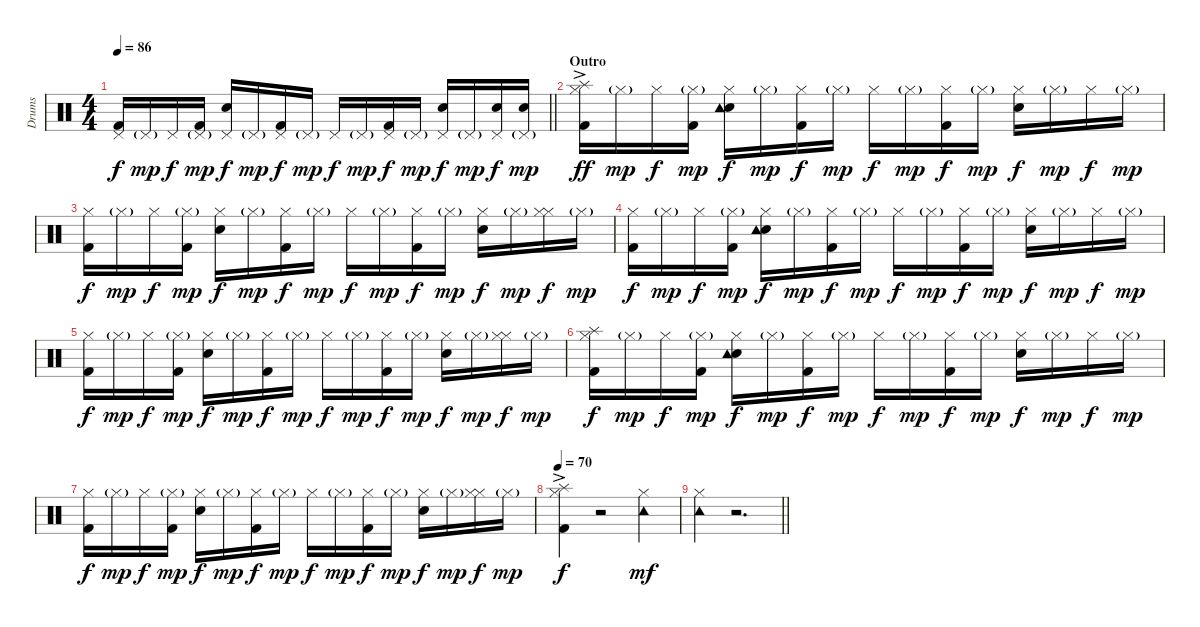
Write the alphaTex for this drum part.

\track ("Drums" "Drums") {instrument percussion}
\staff {score}
\articulation defaults
\ts (4 4)
\tempo 86
\clef neutral
\barLineRight lightlight
\ks c
("Pedal Hi-Hat (hit)" "Kick (hit) 2").16{dy f} "Pedal Hi-Hat (hit)"{g}.16{dy mp} "Pedal Hi-Hat (hit)".16{dy f} ("Pedal Hi-Hat (hit)"{g} "Kick (hit) 2").16{dy mp} ("Pedal Hi-Hat (hit)" "Snare (hit) 2").16{dy f} "Pedal Hi-Hat (hit)"{g}.16{dy mp} ("Pedal Hi-Hat (hit)" "Kick (hit) 2").16{dy f} "Pedal Hi-Hat (hit)"{g}.16{dy mp} "Pedal Hi-Hat (hit)".16{dy f} "Pedal Hi-Hat (hit)"{g}.16{dy mp} ("Pedal Hi-Hat (hit)" "Kick (hit) 2").16{dy f} "Pedal Hi-Hat (hit)"{g}.16{dy mp} ("Pedal Hi-Hat (hit)" "Snare (hit) 2").16{dy f} "Pedal Hi-Hat (hit)"{g}.16{dy mp} ("Pedal Hi-Hat (hit)" "Snare (hit) 2").16{dy f} ("Pedal Hi-Hat (hit)"{g} "Snare (hit) 2").16{dy mp} |
\section ("" "Outro")
("Hi-Hat (closed)" "Kick (hit) 2" "Splash (hit)"{ac}).16{dy ff} "Hi-Hat (closed)"{g}.16{dy mp} "Hi-Hat (closed)".16{dy f} ("Hi-Hat (closed)"{g} "Kick (hit) 2").16{dy mp} ("Hi-Hat (closed)" "Snare (hit) 2" "Tambourine (hit)").16{dy f} "Hi-Hat (closed)"{g}.16{dy mp} ("Hi-Hat (closed)" "Kick (hit) 2").16{dy f} "Hi-Hat (closed)"{g}.16{dy mp} "Hi-Hat (closed)".16{dy f} "Hi-Hat (closed)"{g}.16{dy mp} ("Hi-Hat (closed)" "Kick (hit) 2").16{dy f} "Hi-Hat (closed)"{g}.16{dy mp} ("Hi-Hat (closed)" "Snare (hit) 2").16{dy f} "Hi-Hat (closed)"{g}.16{dy mp} "Hi-Hat (closed)".16{dy f} "Hi-Hat (closed)"{g}.16{dy mp} |
("Hi-Hat (closed)" "Kick (hit) 2").16{dy f} "Hi-Hat (closed)"{g}.16{dy mp} "Hi-Hat (closed)".16{dy f} ("Hi-Hat (closed)"{g} "Kick (hit) 2").16{dy mp} ("Hi-Hat (closed)" "Snare (hit) 2").16{dy f} "Hi-Hat (closed)"{g}.16{dy mp} ("Hi-Hat (closed)" "Kick (hit) 2").16{dy f} "Hi-Hat (closed)"{g}.16{dy mp} "Hi-Hat (closed)".16{dy f} "Hi-Hat (closed)"{g}.16{dy mp} ("Hi-Hat (closed)" "Kick (hit) 2").16{dy f} "Hi-Hat (closed)"{g}.16{dy mp} ("Hi-Hat (closed)" "Snare (hit) 2").16{dy f} "Hi-Hat (closed)"{g}.16{dy mp} ("Hi-Hat (closed)" "Hi-Hat (closed)").16{dy f} "Hi-Hat (closed)"{g}.16{dy mp} |
("Hi-Hat (closed)" "Kick (hit) 2").16{dy f} "Hi-Hat (closed)"{g}.16{dy mp} "Hi-Hat (closed)".16{dy f} ("Hi-Hat (closed)"{g} "Kick (hit) 2").16{dy mp} ("Hi-Hat (closed)" "Snare (hit) 2" "Tambourine (hit)").16{dy f} "Hi-Hat (closed)"{g}.16{dy mp} ("Hi-Hat (closed)" "Kick (hit) 2").16{dy f} "Hi-Hat (closed)"{g}.16{dy mp} "Hi-Hat (closed)".16{dy f} "Hi-Hat (closed)"{g}.16{dy mp} ("Hi-Hat (closed)" "Kick (hit) 2").16{dy f} "Hi-Hat (closed)"{g}.16{dy mp} ("Hi-Hat (closed)" "Snare (hit) 2").16{dy f} "Hi-Hat (closed)"{g}.16{dy mp} "Hi-Hat (closed)".16{dy f} "Hi-Hat (closed)"{g}.16{dy mp} |
("Hi-Hat (closed)" "Kick (hit) 2").16{dy f} "Hi-Hat (closed)"{g}.16{dy mp} "Hi-Hat (closed)".16{dy f} ("Hi-Hat (closed)"{g} "Kick (hit) 2").16{dy mp} ("Hi-Hat (closed)" "Snare (hit) 2").16{dy f} "Hi-Hat (closed)"{g}.16{dy mp} ("Hi-Hat (closed)" "Kick (hit) 2").16{dy f} "Hi-Hat (closed)"{g}.16{dy mp} "Hi-Hat (closed)".16{dy f} "Hi-Hat (closed)"{g}.16{dy mp} ("Hi-Hat (closed)" "Kick (hit) 2").16{dy f} "Hi-Hat (closed)"{g}.16{dy mp} ("Hi-Hat (closed)" "Snare (hit) 2").16{dy f} "Hi-Hat (closed)"{g}.16{dy mp} ("Hi-Hat (closed)" "Hi-Hat (closed)").16{dy f} "Hi-Hat (closed)"{g}.16{dy mp} |
("Hi-Hat (closed)" "Kick (hit) 2" "Splash (hit)").16{dy f} "Hi-Hat (closed)"{g}.16{dy mp} "Hi-Hat (closed)".16{dy f} ("Hi-Hat (closed)"{g} "Kick (hit) 2").16{dy mp} ("Hi-Hat (closed)" "Snare (hit) 2" "Tambourine (hit)").16{dy f} "Hi-Hat (closed)"{g}.16{dy mp} ("Hi-Hat (closed)" "Kick (hit) 2").16{dy f} "Hi-Hat (closed)"{g}.16{dy mp} "Hi-Hat (closed)".16{dy f} "Hi-Hat (closed)"{g}.16{dy mp} ("Hi-Hat (closed)" "Kick (hit) 2").16{dy f} "Hi-Hat (closed)"{g}.16{dy mp} ("Hi-Hat (closed)" "Snare (hit) 2").16{dy f} "Hi-Hat (closed)"{g}.16{dy mp} "Hi-Hat (closed)".16{dy f} "Hi-Hat (closed)"{g}.16{dy mp} |
("Hi-Hat (closed)" "Kick (hit) 2").16{dy f} "Hi-Hat (closed)"{g}.16{dy mp} "Hi-Hat (closed)".16{dy f} ("Hi-Hat (closed)"{g} "Kick (hit) 2").16{dy mp} ("Hi-Hat (closed)" "Snare (hit) 2").16{dy f} "Hi-Hat (closed)"{g}.16{dy mp} ("Hi-Hat (closed)" "Kick (hit) 2").16{dy f} "Hi-Hat (closed)"{g}.16{dy mp} "Hi-Hat (closed)".16{dy f} "Hi-Hat (closed)"{g}.16{dy mp} ("Hi-Hat (closed)" "Kick (hit) 2").16{dy f} "Hi-Hat (closed)"{g}.16{dy mp} ("Hi-Hat (closed)" "Snare (hit) 2").16{dy f} "Hi-Hat (closed)"{g}.16{dy mp} ("Hi-Hat (closed)" "Hi-Hat (closed)").16{dy f} "Hi-Hat (closed)"{g}.16{dy mp} |
\tempo 70
("Hi-Hat (closed)" "Kick (hit) 2" "Splash (hit)"{ac}).4{dy f} r.2 ("Hi-Hat (closed)" "Tambourine (hit)").4{dy mf} |
\barLineRight lightlight
("Hi-Hat (closed)" "Tambourine (hit)").4 r.2{d}
